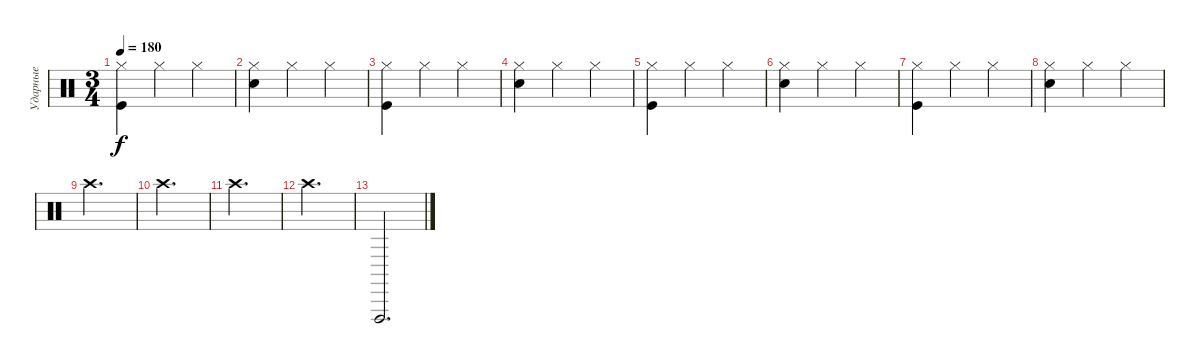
\track ("Ударные" "Ударные") {instrument percussion}
\staff {score}
\articulation defaults
\ts (3 4)
\tempo 180
\clef neutral
\ks c
("Kick (hit)" "Hi-Hat (closed)").4{dy f} "Hi-Hat (closed)".4 "Hi-Hat (closed)".4 |
("Snare (hit) 2" "Hi-Hat (closed)").4 "Hi-Hat (closed)".4 "Hi-Hat (closed)".4 |
("Kick (hit)" "Hi-Hat (closed)").4 "Hi-Hat (closed)".4 "Hi-Hat (closed)".4 |
("Snare (hit) 2" "Hi-Hat (closed)").4 "Hi-Hat (closed)".4 "Hi-Hat (closed)".4 |
("Kick (hit)" "Hi-Hat (closed)").4 "Hi-Hat (closed)".4 "Hi-Hat (closed)".4 |
("Snare (hit) 2" "Hi-Hat (closed)").4 "Hi-Hat (closed)".4 "Hi-Hat (closed)".4 |
("Kick (hit)" "Hi-Hat (closed)").4 "Hi-Hat (closed)".4 "Hi-Hat (closed)".4 |
("Snare (hit) 2" "Hi-Hat (closed)").4 "Hi-Hat (closed)".4 "Hi-Hat (closed)".4 |
"Crash high (hit)".2{d} |
"Crash high (hit)".2{d} |
"Crash high (hit)".2{d} |
"Crash high (hit)".2{d} |
"Vibraslap (hit)".2{d}
